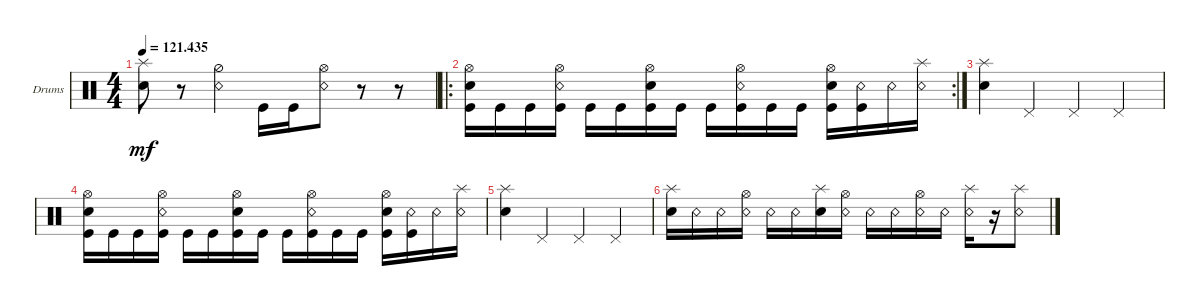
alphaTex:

\bracketExtendMode groupsimilarinstruments
\firstSystemTrackNameOrientation horizontal
\otherSystemsTrackNameOrientation horizontal
\track ("Drumkit" "Drums") {instrument percussion}
\staff {score}
\articulation defaults
\ts (4 4)
\tempo
121.435
\accidentals auto
\clef neutral
\ottava regular
\simile none
\ks c
("Snare (hit) 2" "Splash (hit)").8{dy mf} r.8 ("Snare (rim shot)" "Hi-Hat (half)").4 "Kick (hit)".16 "Kick (hit)".16 ("Snare (rim shot)" "Hi-Hat (open)").8 r.8 r.8 |
\ro
\rc 2
("Snare (hit) 2" "Hi-Hat (open)" "Kick (hit)").16 "Kick (hit)".16 "Kick (hit)".16 ("Snare (rim shot)" "Hi-Hat (open)" "Kick (hit)").16 "Kick (hit)".16 "Kick (hit)".16 ("Snare (hit) 2" "Hi-Hat (open)" "Kick (hit)").16 "Kick (hit)".16 "Kick (hit)".16 ("Snare (rim shot)" "Hi-Hat (open)" "Kick (hit)").16 "Kick (hit)".16 "Kick (hit)".16 ("Snare (hit) 2" "Hi-Hat (open)" "Kick (hit)").16 ("Snare (rim shot)" "Kick (hit)").16 "Snare (rim shot)".16 ("Snare (rim shot)" "Splash (hit)").16 |
("Snare (hit) 2" "Splash (hit)").4 "Pedal Hi-Hat (hit)".4 "Pedal Hi-Hat (hit)".4 "Pedal Hi-Hat (hit)".4 |
("Snare (hit) 2" "Hi-Hat (open)" "Kick (hit)").16 "Kick (hit)".16 "Kick (hit)".16 ("Snare (rim shot)" "Hi-Hat (open)" "Kick (hit)").16 "Kick (hit)".16 "Kick (hit)".16 ("Snare (hit) 2" "Hi-Hat (open)" "Kick (hit)").16 "Kick (hit)".16 "Kick (hit)".16 ("Snare (rim shot)" "Hi-Hat (open)" "Kick (hit)").16 "Kick (hit)".16 "Kick (hit)".16 ("Snare (hit) 2" "Hi-Hat (open)" "Kick (hit)").16 ("Snare (rim shot)" "Kick (hit)").16 "Snare (rim shot)".16 ("Snare (rim shot)" "Splash (hit)").16 |
("Snare (hit) 2" "Splash (hit)").4 "Pedal Hi-Hat (hit)".4 "Pedal Hi-Hat (hit)".4 "Pedal Hi-Hat (hit)".4 |
("Snare (hit) 2" "Splash (hit)").16 "Snare (rim shot)".16 "Snare (rim shot)".16 ("Snare (rim shot)" "Hi-Hat (open)").16 "Snare (rim shot)".16 "Snare (rim shot)".16 ("Snare (hit) 2" "Splash (hit)").16 ("Snare (rim shot)" "Hi-Hat (open)").16 "Snare (rim shot)".16 "Snare (rim shot)".16 ("Snare (rim shot)" "Hi-Hat (open)").16 "Snare (rim shot)".16 ("Snare (rim shot)" "Splash (hit)").16 r.16 ("Snare (rim shot)" "Splash (hit)").8
